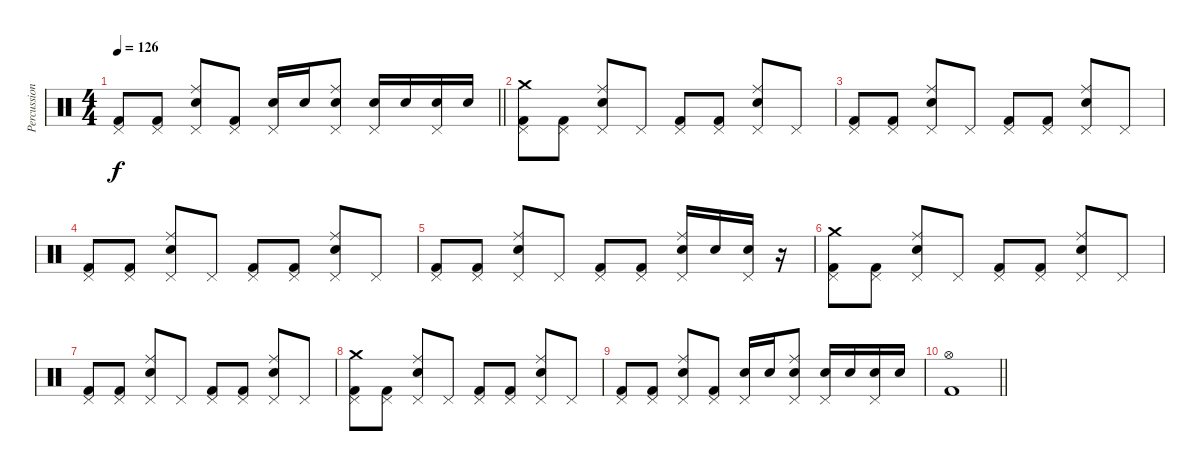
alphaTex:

\track ("Percussion" "Percussion") {instrument percussion}
\staff {score}
\articulation defaults
\ts (4 4)
\tempo 126
\clef neutral
\barLineRight lightlight
\ks c
("Pedal Hi-Hat (hit)" "Kick (hit) 2").8{dy f} ("Pedal Hi-Hat (hit)" "Kick (hit) 2").8 ("Pedal Hi-Hat (hit)" "Ride (middle)" "Snare (hit) 2").8 ("Pedal Hi-Hat (hit)" "Kick (hit) 2").8 ("Pedal Hi-Hat (hit)" "Snare (hit) 2").16 "Snare (hit) 2".16 ("Pedal Hi-Hat (hit)" "Ride (middle)" "Snare (hit) 2").8 ("Pedal Hi-Hat (hit)" "Snare (hit) 2").16 "Snare (hit) 2".16 ("Pedal Hi-Hat (hit)" "Snare (hit) 2").16 "Snare (hit) 2".16 |
("Pedal Hi-Hat (hit)" "Crash medium (hit)" "Kick (hit) 2").8 ("Pedal Hi-Hat (hit)" "Kick (hit) 2").8 ("Pedal Hi-Hat (hit)" "Ride (middle)" "Snare (hit) 2").8 "Pedal Hi-Hat (hit)".8 ("Pedal Hi-Hat (hit)" "Kick (hit) 2").8 ("Pedal Hi-Hat (hit)" "Kick (hit) 2").8 ("Pedal Hi-Hat (hit)" "Ride (middle)" "Snare (hit) 2").8 "Pedal Hi-Hat (hit)".8 |
("Pedal Hi-Hat (hit)" "Kick (hit) 2").8 ("Pedal Hi-Hat (hit)" "Kick (hit) 2").8 ("Pedal Hi-Hat (hit)" "Ride (middle)" "Snare (hit) 2").8 "Pedal Hi-Hat (hit)".8 ("Pedal Hi-Hat (hit)" "Kick (hit) 2").8 ("Pedal Hi-Hat (hit)" "Kick (hit) 2").8 ("Pedal Hi-Hat (hit)" "Ride (middle)" "Snare (hit) 2").8 "Pedal Hi-Hat (hit)".8 |
("Pedal Hi-Hat (hit)" "Kick (hit) 2").8 ("Pedal Hi-Hat (hit)" "Kick (hit) 2").8 ("Pedal Hi-Hat (hit)" "Ride (middle)" "Snare (hit) 2").8 "Pedal Hi-Hat (hit)".8 ("Pedal Hi-Hat (hit)" "Kick (hit) 2").8 ("Pedal Hi-Hat (hit)" "Kick (hit) 2").8 ("Pedal Hi-Hat (hit)" "Ride (middle)" "Snare (hit) 2").8 "Pedal Hi-Hat (hit)".8 |
("Pedal Hi-Hat (hit)" "Kick (hit) 2").8 ("Pedal Hi-Hat (hit)" "Kick (hit) 2").8 ("Pedal Hi-Hat (hit)" "Ride (middle)" "Snare (hit) 2").8 "Pedal Hi-Hat (hit)".8 ("Pedal Hi-Hat (hit)" "Kick (hit) 2").8 ("Pedal Hi-Hat (hit)" "Kick (hit) 2").8 ("Pedal Hi-Hat (hit)" "Ride (middle)" "Snare (hit) 2").16 "Snare (hit) 2".16 ("Pedal Hi-Hat (hit)" "Snare (hit) 2").16 r.16 |
("Pedal Hi-Hat (hit)" "Crash medium (hit)" "Kick (hit) 2").8 ("Pedal Hi-Hat (hit)" "Kick (hit) 2").8 ("Pedal Hi-Hat (hit)" "Ride (middle)" "Snare (hit) 2").8 "Pedal Hi-Hat (hit)".8 ("Pedal Hi-Hat (hit)" "Kick (hit) 2").8 ("Pedal Hi-Hat (hit)" "Kick (hit) 2").8 ("Pedal Hi-Hat (hit)" "Ride (middle)" "Snare (hit) 2").8 "Pedal Hi-Hat (hit)".8 |
("Pedal Hi-Hat (hit)" "Kick (hit) 2").8 ("Pedal Hi-Hat (hit)" "Kick (hit) 2").8 ("Pedal Hi-Hat (hit)" "Ride (middle)" "Snare (hit) 2").8 "Pedal Hi-Hat (hit)".8 ("Pedal Hi-Hat (hit)" "Kick (hit) 2").8 ("Pedal Hi-Hat (hit)" "Kick (hit) 2").8 ("Pedal Hi-Hat (hit)" "Ride (middle)" "Snare (hit) 2").8 "Pedal Hi-Hat (hit)".8 |
("Pedal Hi-Hat (hit)" "Crash medium (hit)" "Kick (hit) 2").8 ("Pedal Hi-Hat (hit)" "Kick (hit) 2").8 ("Pedal Hi-Hat (hit)" "Ride (middle)" "Snare (hit) 2").8 "Pedal Hi-Hat (hit)".8 ("Pedal Hi-Hat (hit)" "Kick (hit) 2").8 ("Pedal Hi-Hat (hit)" "Kick (hit) 2").8 ("Pedal Hi-Hat (hit)" "Ride (middle)" "Snare (hit) 2").8 "Pedal Hi-Hat (hit)".8 |
("Pedal Hi-Hat (hit)" "Kick (hit) 2").8 ("Pedal Hi-Hat (hit)" "Kick (hit) 2").8 ("Pedal Hi-Hat (hit)" "Ride (middle)" "Snare (hit) 2").8 ("Pedal Hi-Hat (hit)" "Kick (hit) 2").8 ("Pedal Hi-Hat (hit)" "Snare (hit) 2").16 "Snare (hit) 2".16 ("Pedal Hi-Hat (hit)" "Ride (middle)" "Snare (hit) 2").8 ("Pedal Hi-Hat (hit)" "Snare (hit) 2").16 "Snare (hit) 2".16 ("Pedal Hi-Hat (hit)" "Snare (hit) 2").16 "Snare (hit) 2".16 |
\barLineRight lightlight
("Hi-Hat (open)" "Kick (hit) 2").1
